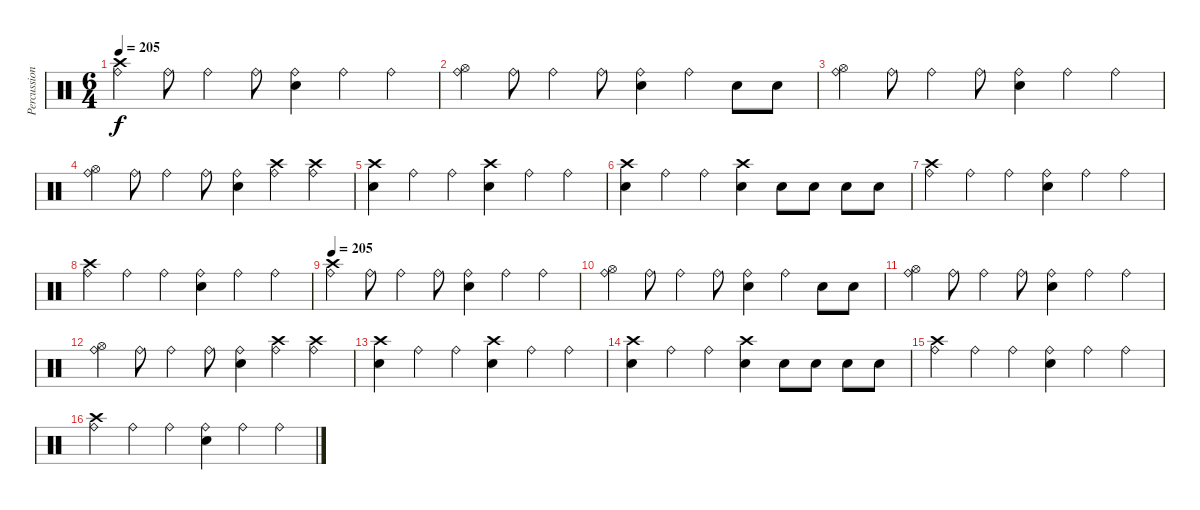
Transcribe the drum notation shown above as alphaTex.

\track ("Percussion" "Percussion") {instrument percussion}
\staff {score}
\articulation defaults
\ts (6 4)
\tempo 205
\clef neutral
\ks c
("Ride (bell)" "Crash high (hit)").4{dy f volume 12} "Ride (bell)".8 "Ride (bell)".4 "Ride (bell)".8 ("Ride (bell)" "Electric Snare (hit)").4 "Ride (bell)".4 "Ride (bell)".4 |
("Ride (bell)" "Hi-Hat (open)").4 "Ride (bell)".8 "Ride (bell)".4 "Ride (bell)".8 ("Ride (bell)" "Electric Snare (hit)").4 "Ride (bell)".4 "Electric Snare (hit)".8 "Electric Snare (hit)".8 |
("Ride (bell)" "Hi-Hat (open)").4 "Ride (bell)".8 "Ride (bell)".4 "Ride (bell)".8 ("Ride (bell)" "Electric Snare (hit)").4 "Ride (bell)".4 "Ride (bell)".4 |
("Ride (bell)" "Hi-Hat (open)").4 "Ride (bell)".8 "Ride (bell)".4 "Ride (bell)".8 ("Ride (bell)" "Electric Snare (hit)").4 ("Ride (bell)" "Crash high (hit)").4 ("Ride (bell)" "Crash high (hit)").4 |
("Crash high (hit)" "Snare (hit) 2").4 "Ride (bell)".4 "Ride (bell)".4 ("Crash high (hit)" "Snare (hit) 2").4 "Ride (bell)".4 "Ride (bell)".4 |
("Crash high (hit)" "Snare (hit) 2").4 "Ride (bell)".4 "Ride (bell)".4 ("Crash high (hit)" "Snare (hit) 2").4 "Electric Snare (hit)".8 "Electric Snare (hit)".8 "Electric Snare (hit)".8 "Electric Snare (hit)".8 |
("Ride (bell)" "Crash high (hit)").4 "Ride (bell)".4 "Ride (bell)".4 ("Ride (bell)" "Electric Snare (hit)").4 "Ride (bell)".4 "Ride (bell)".4 |
("Ride (bell)" "Crash high (hit)").4 "Ride (bell)".4 "Ride (bell)".4 ("Ride (bell)" "Electric Snare (hit)").4 "Ride (bell)".4 "Ride (bell)".4 |
\tempo 205
("Ride (bell)" "Crash high (hit)").4{volume 12} "Ride (bell)".8 "Ride (bell)".4 "Ride (bell)".8 ("Ride (bell)" "Electric Snare (hit)").4 "Ride (bell)".4 "Ride (bell)".4 |
("Ride (bell)" "Hi-Hat (open)").4 "Ride (bell)".8 "Ride (bell)".4 "Ride (bell)".8 ("Ride (bell)" "Electric Snare (hit)").4 "Ride (bell)".4 "Electric Snare (hit)".8 "Electric Snare (hit)".8 |
("Ride (bell)" "Hi-Hat (open)").4 "Ride (bell)".8 "Ride (bell)".4 "Ride (bell)".8 ("Ride (bell)" "Electric Snare (hit)").4 "Ride (bell)".4 "Ride (bell)".4 |
("Ride (bell)" "Hi-Hat (open)").4 "Ride (bell)".8 "Ride (bell)".4 "Ride (bell)".8 ("Ride (bell)" "Electric Snare (hit)").4 ("Ride (bell)" "Crash high (hit)").4 ("Ride (bell)" "Crash high (hit)").4 |
("Crash high (hit)" "Snare (hit) 2").4 "Ride (bell)".4 "Ride (bell)".4 ("Crash high (hit)" "Snare (hit) 2").4 "Ride (bell)".4 "Ride (bell)".4 |
("Crash high (hit)" "Snare (hit) 2").4 "Ride (bell)".4 "Ride (bell)".4 ("Crash high (hit)" "Snare (hit) 2").4 "Electric Snare (hit)".8 "Electric Snare (hit)".8 "Electric Snare (hit)".8 "Electric Snare (hit)".8 |
("Ride (bell)" "Crash high (hit)").4 "Ride (bell)".4 "Ride (bell)".4 ("Ride (bell)" "Electric Snare (hit)").4 "Ride (bell)".4 "Ride (bell)".4 |
("Ride (bell)" "Crash high (hit)").4 "Ride (bell)".4 "Ride (bell)".4 ("Ride (bell)" "Electric Snare (hit)").4 "Ride (bell)".4 "Ride (bell)".4
